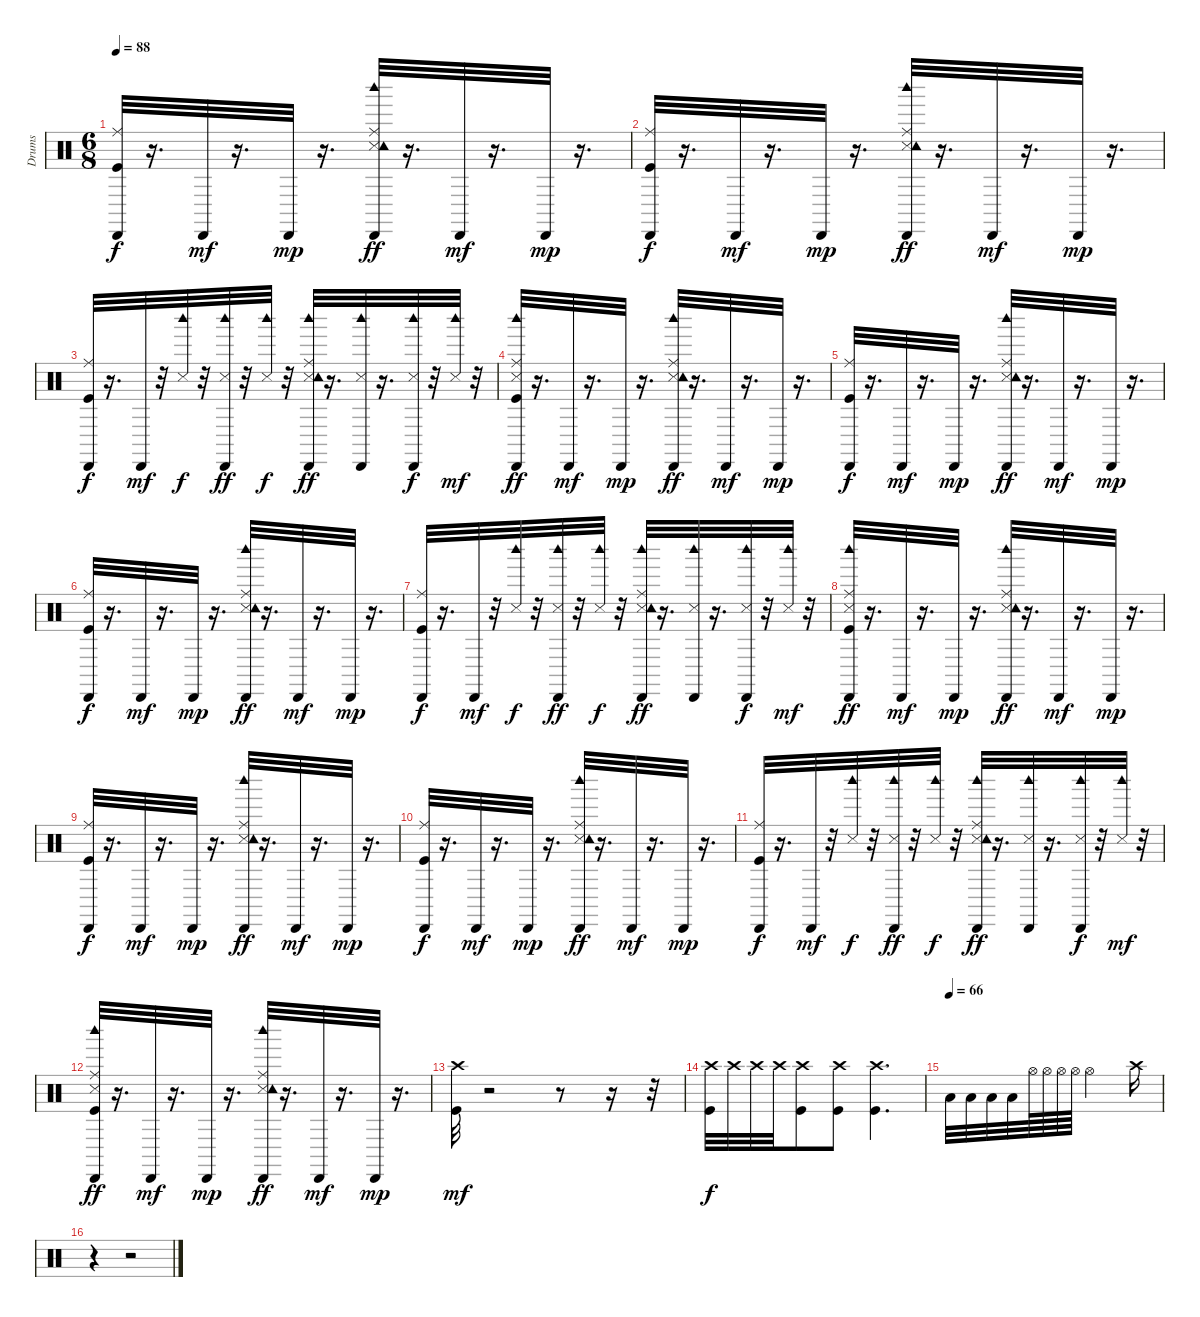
\track ("Drums               " "Drums     ") {instrument percussion}
\staff {score}
\articulation defaults
\ts (6 8)
\tempo 88
\clef neutral
\ks c
("Kick (hit)" "Ride (middle)" "Cabasa (hit)").32{dy f} r.16{d} "Cabasa (hit)".32{dy mf} r.16{d} "Cabasa (hit)".32{dy mp} r.16{d} ("Snare (side stick) 3" "Ride (middle)" "Tambourine (hit)" "Cabasa (hit)" "Woodblock high (hit)").32{dy ff} r.16{d} "Cabasa (hit)".32{dy mf} r.16{d} "Cabasa (hit)".32{dy mp} r.16{d} |
("Kick (hit)" "Ride (middle)" "Cabasa (hit)").32{dy f} r.16{d} "Cabasa (hit)".32{dy mf} r.16{d} "Cabasa (hit)".32{dy mp} r.16{d} ("Snare (side stick) 3" "Ride (middle)" "Tambourine (hit)" "Cabasa (hit)" "Woodblock high (hit)").32{dy ff} r.16{d} "Cabasa (hit)".32{dy mf} r.16{d} "Cabasa (hit)".32{dy mp} r.16{d} |
("Kick (hit)" "Ride (middle)" "Cabasa (hit)").32{dy f} r.16{d} "Cabasa (hit)".32{dy mf} r.32 ("Snare (side stick) 3" "Woodblock high (hit)").32{dy f} r.32 ("Snare (side stick) 3" "Cabasa (hit)" "Woodblock high (hit)").32{dy ff} r.32 ("Snare (side stick) 3" "Woodblock high (hit)").32{dy f} r.32 ("Snare (side stick) 3" "Ride (middle)" "Tambourine (hit)" "Cabasa (hit)" "Woodblock high (hit)").32{dy ff} r.16{d} ("Snare (side stick) 3" "Cabasa (hit)" "Woodblock high (hit)").32 r.16{d} ("Snare (side stick) 3" "Cabasa (hit)" "Woodblock high (hit)").32{dy f} r.32 ("Snare (side stick) 3" "Woodblock high (hit)").32{dy mf} r.32 |
("Kick (hit)" "Snare (side stick) 3" "Ride (middle)" "Cabasa (hit)" "Woodblock high (hit)").32{dy ff} r.16{d} "Cabasa (hit)".32{dy mf} r.16{d} "Cabasa (hit)".32{dy mp} r.16{d} ("Snare (side stick) 3" "Ride (middle)" "Tambourine (hit)" "Cabasa (hit)" "Woodblock high (hit)").32{dy ff} r.16{d} "Cabasa (hit)".32{dy mf} r.16{d} "Cabasa (hit)".32{dy mp} r.16{d} |
("Kick (hit)" "Ride (middle)" "Cabasa (hit)").32{dy f} r.16{d} "Cabasa (hit)".32{dy mf} r.16{d} "Cabasa (hit)".32{dy mp} r.16{d} ("Snare (side stick) 3" "Ride (middle)" "Tambourine (hit)" "Cabasa (hit)" "Woodblock high (hit)").32{dy ff} r.16{d} "Cabasa (hit)".32{dy mf} r.16{d} "Cabasa (hit)".32{dy mp} r.16{d} |
("Kick (hit)" "Ride (middle)" "Cabasa (hit)").32{dy f} r.16{d} "Cabasa (hit)".32{dy mf} r.16{d} "Cabasa (hit)".32{dy mp} r.16{d} ("Snare (side stick) 3" "Ride (middle)" "Tambourine (hit)" "Cabasa (hit)" "Woodblock high (hit)").32{dy ff} r.16{d} "Cabasa (hit)".32{dy mf} r.16{d} "Cabasa (hit)".32{dy mp} r.16{d} |
("Kick (hit)" "Ride (middle)" "Cabasa (hit)").32{dy f} r.16{d} "Cabasa (hit)".32{dy mf} r.32 ("Snare (side stick) 3" "Woodblock high (hit)").32{dy f} r.32 ("Snare (side stick) 3" "Cabasa (hit)" "Woodblock high (hit)").32{dy ff} r.32 ("Snare (side stick) 3" "Woodblock high (hit)").32{dy f} r.32 ("Snare (side stick) 3" "Ride (middle)" "Tambourine (hit)" "Cabasa (hit)" "Woodblock high (hit)").32{dy ff} r.16{d} ("Snare (side stick) 3" "Cabasa (hit)" "Woodblock high (hit)").32 r.16{d} ("Snare (side stick) 3" "Cabasa (hit)" "Woodblock high (hit)").32{dy f} r.32 ("Snare (side stick) 3" "Woodblock high (hit)").32{dy mf} r.32 |
("Kick (hit)" "Snare (side stick) 3" "Ride (middle)" "Cabasa (hit)" "Woodblock high (hit)").32{dy ff} r.16{d} "Cabasa (hit)".32{dy mf} r.16{d} "Cabasa (hit)".32{dy mp} r.16{d} ("Snare (side stick) 3" "Ride (middle)" "Tambourine (hit)" "Cabasa (hit)" "Woodblock high (hit)").32{dy ff} r.16{d} "Cabasa (hit)".32{dy mf} r.16{d} "Cabasa (hit)".32{dy mp} r.16{d} |
("Kick (hit)" "Ride (middle)" "Cabasa (hit)").32{dy f} r.16{d} "Cabasa (hit)".32{dy mf} r.16{d} "Cabasa (hit)".32{dy mp} r.16{d} ("Snare (side stick) 3" "Ride (middle)" "Tambourine (hit)" "Cabasa (hit)" "Woodblock high (hit)").32{dy ff} r.16{d} "Cabasa (hit)".32{dy mf} r.16{d} "Cabasa (hit)".32{dy mp} r.16{d} |
("Kick (hit)" "Ride (middle)" "Cabasa (hit)").32{dy f} r.16{d} "Cabasa (hit)".32{dy mf} r.16{d} "Cabasa (hit)".32{dy mp} r.16{d} ("Snare (side stick) 3" "Ride (middle)" "Tambourine (hit)" "Cabasa (hit)" "Woodblock high (hit)").32{dy ff} r.16{d} "Cabasa (hit)".32{dy mf} r.16{d} "Cabasa (hit)".32{dy mp} r.16{d} |
("Kick (hit)" "Ride (middle)" "Cabasa (hit)").32{dy f} r.16{d} "Cabasa (hit)".32{dy mf} r.32 ("Snare (side stick) 3" "Woodblock high (hit)").32{dy f} r.32 ("Snare (side stick) 3" "Cabasa (hit)" "Woodblock high (hit)").32{dy ff} r.32 ("Snare (side stick) 3" "Woodblock high (hit)").32{dy f} r.32 ("Snare (side stick) 3" "Ride (middle)" "Tambourine (hit)" "Cabasa (hit)" "Woodblock high (hit)").32{dy ff} r.16{d} ("Snare (side stick) 3" "Cabasa (hit)" "Woodblock high (hit)").32 r.16{d} ("Snare (side stick) 3" "Cabasa (hit)" "Woodblock high (hit)").32{dy f} r.32 ("Snare (side stick) 3" "Woodblock high (hit)").32{dy mf} r.32 |
("Kick (hit)" "Snare (side stick) 3" "Ride (middle)" "Cabasa (hit)" "Woodblock high (hit)").32{dy ff} r.16{d} "Cabasa (hit)".32{dy mf} r.16{d} "Cabasa (hit)".32{dy mp} r.16{d} ("Snare (side stick) 3" "Ride (middle)" "Tambourine (hit)" "Cabasa (hit)" "Woodblock high (hit)").32{dy ff} r.16{d} "Cabasa (hit)".32{dy mf} r.16{d} "Cabasa (hit)".32{dy mp} r.16{d} |
("Kick (hit)" "Crash high (hit)").32{dy mf} r.2 r.8 r.16 r.32 |
("Kick (hit)" "Crash high (hit)").32{dy f} "Crash high (hit)".32 "Crash high (hit)".32 "Crash high (hit)".32 ("Kick (hit)" "Crash high (hit)").8 ("Kick (hit)" "Crash high (hit)").8 ("Kick (hit)" "Crash high (hit)").4{d} |
\tempo (66)
"Low Tom (hit)".32 "Low Tom (hit)".32 "Low Tom (hit)".32 "Low Tom (hit)".32 "Hi-Hat (open)".64 "Hi-Hat (open)".64 "Hi-Hat (open)".64 "Hi-Hat (open)".64 "Hi-Hat (open)".2 "Crash high (hit)".16 |
r.4 r.2
